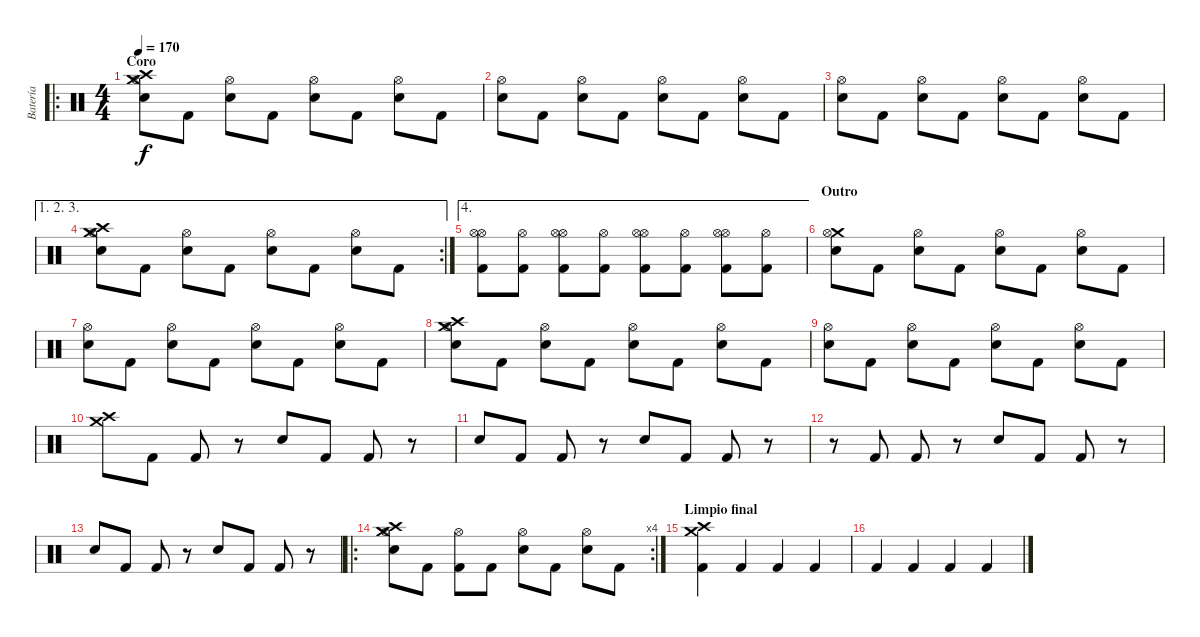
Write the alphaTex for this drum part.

\track ("Batería" "Batería") {instrument percussion}
\staff {score}
\articulation defaults
\ro
\ts (4 4)
\section ("" "Coro")
\tempo 170
\clef neutral
\ks c
("Crash high (hit)" "Crash medium (hit)" "Snare (hit) 2" "Hi-Hat (open)").8{dy f} "Kick (hit) 2".8 ("Snare (hit) 2" "Hi-Hat (open)").8 "Kick (hit) 2".8 ("Snare (hit) 2" "Hi-Hat (open)").8 "Kick (hit) 2".8 ("Snare (hit) 2" "Hi-Hat (open)").8 "Kick (hit) 2".8 |
("Snare (hit) 2" "Hi-Hat (open)").8 "Kick (hit) 2".8 ("Snare (hit) 2" "Hi-Hat (open)").8 "Kick (hit) 2".8 ("Snare (hit) 2" "Hi-Hat (open)").8 "Kick (hit) 2".8 ("Snare (hit) 2" "Hi-Hat (open)").8 "Kick (hit) 2".8 |
("Snare (hit) 2" "Hi-Hat (open)").8 "Kick (hit) 2".8 ("Snare (hit) 2" "Hi-Hat (open)").8 "Kick (hit) 2".8 ("Snare (hit) 2" "Hi-Hat (open)").8 "Kick (hit) 2".8 ("Snare (hit) 2" "Hi-Hat (open)").8 "Kick (hit) 2".8 |
\ae (1 2 3)
\rc 2
("Crash high (hit)" "Crash medium (hit)" "Snare (hit) 2" "Hi-Hat (open)").8 "Kick (hit) 2".8 ("Snare (hit) 2" "Hi-Hat (open)").8 "Kick (hit) 2".8 ("Snare (hit) 2" "Hi-Hat (open)").8 "Kick (hit) 2".8 ("Snare (hit) 2" "Hi-Hat (open)").8 "Kick (hit) 2".8 |
\ae 4
("Hi-Hat (open)" "Kick (hit) 2" "Hi-Hat (open)").8 ("Hi-Hat (open)" "Kick (hit) 2").8 ("Hi-Hat (open)" "Kick (hit) 2" "Hi-Hat (open)").8 ("Hi-Hat (open)" "Kick (hit) 2").8 ("Hi-Hat (open)" "Kick (hit) 2" "Hi-Hat (open)").8 ("Hi-Hat (open)" "Kick (hit) 2").8 ("Hi-Hat (open)" "Kick (hit) 2" "Hi-Hat (open)").8 ("Hi-Hat (open)" "Kick (hit) 2").8 |
\section ("" "Outro")
("Crash medium (hit)" "Snare (hit) 2" "Hi-Hat (open)").8 "Kick (hit) 2".8 ("Snare (hit) 2" "Hi-Hat (open)").8 "Kick (hit) 2".8 ("Snare (hit) 2" "Hi-Hat (open)").8 "Kick (hit) 2".8 ("Snare (hit) 2" "Hi-Hat (open)").8 "Kick (hit) 2".8 |
("Snare (hit) 2" "Hi-Hat (open)").8 "Kick (hit) 2".8 ("Snare (hit) 2" "Hi-Hat (open)").8 "Kick (hit) 2".8 ("Snare (hit) 2" "Hi-Hat (open)").8 "Kick (hit) 2".8 ("Snare (hit) 2" "Hi-Hat (open)").8 "Kick (hit) 2".8 |
("Crash high (hit)" "Crash medium (hit)" "Snare (hit) 2" "Hi-Hat (open)").8 "Kick (hit) 2".8 ("Snare (hit) 2" "Hi-Hat (open)").8 "Kick (hit) 2".8 ("Snare (hit) 2" "Hi-Hat (open)").8 "Kick (hit) 2".8 ("Snare (hit) 2" "Hi-Hat (open)").8 "Kick (hit) 2".8 |
("Snare (hit) 2" "Hi-Hat (open)").8 "Kick (hit) 2".8 ("Snare (hit) 2" "Hi-Hat (open)").8 "Kick (hit) 2".8 ("Snare (hit) 2" "Hi-Hat (open)").8 "Kick (hit) 2".8 ("Snare (hit) 2" "Hi-Hat (open)").8 "Kick (hit) 2".8 |
("Crash high (hit)" "Crash medium (hit)").8 "Kick (hit) 2".8 "Kick (hit) 2".8 r.8 "Snare (hit) 2".8 "Kick (hit) 2".8 "Kick (hit) 2".8 r.8 |
"Snare (hit) 2".8 "Kick (hit) 2".8 "Kick (hit) 2".8 r.8 "Snare (hit) 2".8 "Kick (hit) 2".8 "Kick (hit) 2".8 r.8 |
r.8 "Kick (hit) 2".8 "Kick (hit) 2".8 r.8 "Snare (hit) 2".8 "Kick (hit) 2".8 "Kick (hit) 2".8 r.8 |
"Snare (hit) 2".8 "Kick (hit) 2".8 "Kick (hit) 2".8 r.8 "Snare (hit) 2".8 "Kick (hit) 2".8 "Kick (hit) 2".8 r.8 |
\ro
\rc 4
("Crash high (hit)" "Crash medium (hit)" "Snare (hit) 2" "Hi-Hat (open)").8 "Kick (hit) 2".8 ("Kick (hit) 2" "Hi-Hat (open)").8 "Kick (hit) 2".8 ("Snare (hit) 2" "Hi-Hat (open)").8 "Kick (hit) 2".8 ("Snare (hit) 2" "Hi-Hat (open)").8 "Kick (hit) 2".8 |
\section ("" "Limpio final")
("Crash medium (hit)" "Crash high (hit)" "Kick (hit) 2").4 "Kick (hit) 2".4 "Kick (hit) 2".4 "Kick (hit) 2".4 |
"Kick (hit) 2".4 "Kick (hit) 2".4 "Kick (hit) 2".4 "Kick (hit) 2".4
